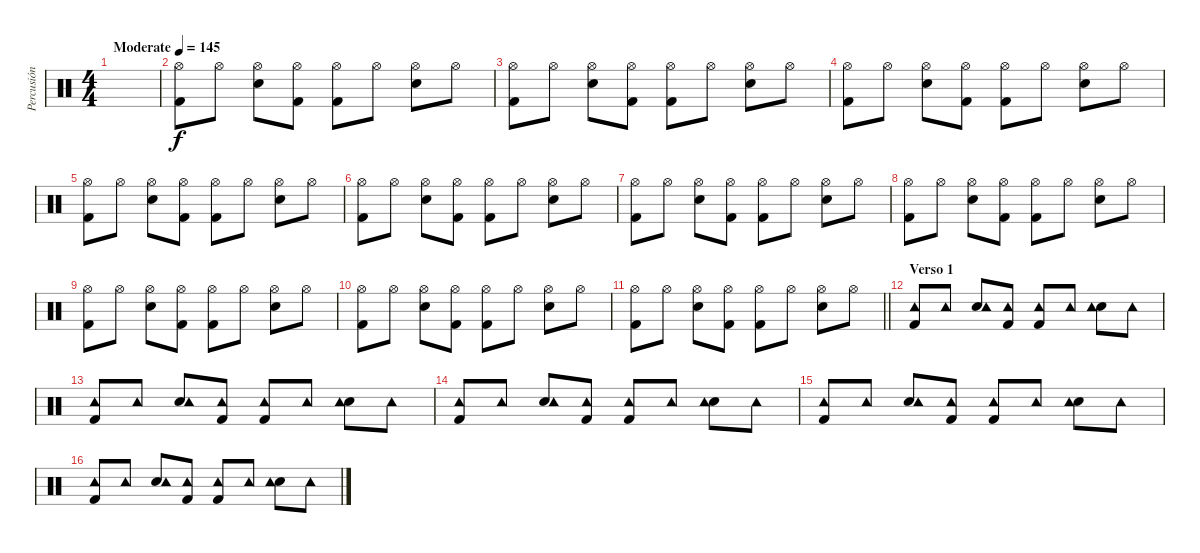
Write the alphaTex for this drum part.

\track ("Percusión" "Percusión") {instrument percussion}
\staff {score}
\articulation defaults
\ts (4 4)
\tempo (145 "Moderate")
\clef neutral
\ks c
|
("Kick (hit) 2" "Hi-Hat (open)").8 "Hi-Hat (open)".8 ("Electric Snare (hit)" "Hi-Hat (open)").8 ("Kick (hit) 2" "Hi-Hat (open)").8 ("Kick (hit) 2" "Hi-Hat (open)").8 "Hi-Hat (open)".8 ("Electric Snare (hit)" "Hi-Hat (open)").8 "Hi-Hat (open)".8 |
("Kick (hit) 2" "Hi-Hat (open)").8 "Hi-Hat (open)".8 ("Electric Snare (hit)" "Hi-Hat (open)").8 ("Kick (hit) 2" "Hi-Hat (open)").8 ("Kick (hit) 2" "Hi-Hat (open)").8 "Hi-Hat (open)".8 ("Electric Snare (hit)" "Hi-Hat (open)").8 "Hi-Hat (open)".8 |
("Kick (hit) 2" "Hi-Hat (open)").8 "Hi-Hat (open)".8 ("Electric Snare (hit)" "Hi-Hat (open)").8 ("Kick (hit) 2" "Hi-Hat (open)").8 ("Kick (hit) 2" "Hi-Hat (open)").8 "Hi-Hat (open)".8 ("Electric Snare (hit)" "Hi-Hat (open)").8 "Hi-Hat (open)".8 |
("Kick (hit) 2" "Hi-Hat (open)").8 "Hi-Hat (open)".8 ("Electric Snare (hit)" "Hi-Hat (open)").8 ("Kick (hit) 2" "Hi-Hat (open)").8 ("Kick (hit) 2" "Hi-Hat (open)").8 "Hi-Hat (open)".8 ("Electric Snare (hit)" "Hi-Hat (open)").8 "Hi-Hat (open)".8 |
("Kick (hit) 2" "Hi-Hat (open)").8 "Hi-Hat (open)".8 ("Electric Snare (hit)" "Hi-Hat (open)").8 ("Kick (hit) 2" "Hi-Hat (open)").8 ("Kick (hit) 2" "Hi-Hat (open)").8 "Hi-Hat (open)".8 ("Electric Snare (hit)" "Hi-Hat (open)").8 "Hi-Hat (open)".8 |
("Kick (hit) 2" "Hi-Hat (open)").8 "Hi-Hat (open)".8 ("Electric Snare (hit)" "Hi-Hat (open)").8 ("Kick (hit) 2" "Hi-Hat (open)").8 ("Kick (hit) 2" "Hi-Hat (open)").8 "Hi-Hat (open)".8 ("Electric Snare (hit)" "Hi-Hat (open)").8 "Hi-Hat (open)".8 |
("Kick (hit) 2" "Hi-Hat (open)").8 "Hi-Hat (open)".8 ("Electric Snare (hit)" "Hi-Hat (open)").8 ("Kick (hit) 2" "Hi-Hat (open)").8 ("Kick (hit) 2" "Hi-Hat (open)").8 "Hi-Hat (open)".8 ("Electric Snare (hit)" "Hi-Hat (open)").8 "Hi-Hat (open)".8 |
("Kick (hit) 2" "Hi-Hat (open)").8 "Hi-Hat (open)".8 ("Electric Snare (hit)" "Hi-Hat (open)").8 ("Kick (hit) 2" "Hi-Hat (open)").8 ("Kick (hit) 2" "Hi-Hat (open)").8 "Hi-Hat (open)".8 ("Electric Snare (hit)" "Hi-Hat (open)").8 "Hi-Hat (open)".8 |
("Kick (hit) 2" "Hi-Hat (open)").8 "Hi-Hat (open)".8 ("Electric Snare (hit)" "Hi-Hat (open)").8 ("Kick (hit) 2" "Hi-Hat (open)").8 ("Kick (hit) 2" "Hi-Hat (open)").8 "Hi-Hat (open)".8 ("Electric Snare (hit)" "Hi-Hat (open)").8 "Hi-Hat (open)".8 |
\barLineRight lightlight
("Kick (hit) 2" "Hi-Hat (open)").8 "Hi-Hat (open)".8 ("Electric Snare (hit)" "Hi-Hat (open)").8 ("Kick (hit) 2" "Hi-Hat (open)").8 ("Kick (hit) 2" "Hi-Hat (open)").8 "Hi-Hat (open)".8 ("Electric Snare (hit)" "Hi-Hat (open)").8 "Hi-Hat (open)".8 |
\section ("" "Verso 1")
("Kick (hit) 2" "Tambourine (hit)").8 "Tambourine (hit)".8 ("Electric Snare (hit)" "Tambourine (hit)").8 ("Kick (hit) 2" "Tambourine (hit)").8 ("Kick (hit) 2" "Tambourine (hit)").8 "Tambourine (hit)".8 ("Electric Snare (hit)" "Tambourine (hit)").8 "Tambourine (hit)".8 |
("Kick (hit) 2" "Tambourine (hit)").8 "Tambourine (hit)".8 ("Electric Snare (hit)" "Tambourine (hit)").8 ("Kick (hit) 2" "Tambourine (hit)").8 ("Kick (hit) 2" "Tambourine (hit)").8 "Tambourine (hit)".8 ("Electric Snare (hit)" "Tambourine (hit)").8 "Tambourine (hit)".8 |
("Kick (hit) 2" "Tambourine (hit)").8 "Tambourine (hit)".8 ("Electric Snare (hit)" "Tambourine (hit)").8 ("Kick (hit) 2" "Tambourine (hit)").8 ("Kick (hit) 2" "Tambourine (hit)").8 "Tambourine (hit)".8 ("Electric Snare (hit)" "Tambourine (hit)").8 "Tambourine (hit)".8 |
("Kick (hit) 2" "Tambourine (hit)").8 "Tambourine (hit)".8 ("Electric Snare (hit)" "Tambourine (hit)").8 ("Kick (hit) 2" "Tambourine (hit)").8 ("Kick (hit) 2" "Tambourine (hit)").8 "Tambourine (hit)".8 ("Electric Snare (hit)" "Tambourine (hit)").8 "Tambourine (hit)".8 |
("Kick (hit) 2" "Tambourine (hit)").8 "Tambourine (hit)".8 ("Electric Snare (hit)" "Tambourine (hit)").8 ("Kick (hit) 2" "Tambourine (hit)").8 ("Kick (hit) 2" "Tambourine (hit)").8 "Tambourine (hit)".8 ("Electric Snare (hit)" "Tambourine (hit)").8 "Tambourine (hit)".8
